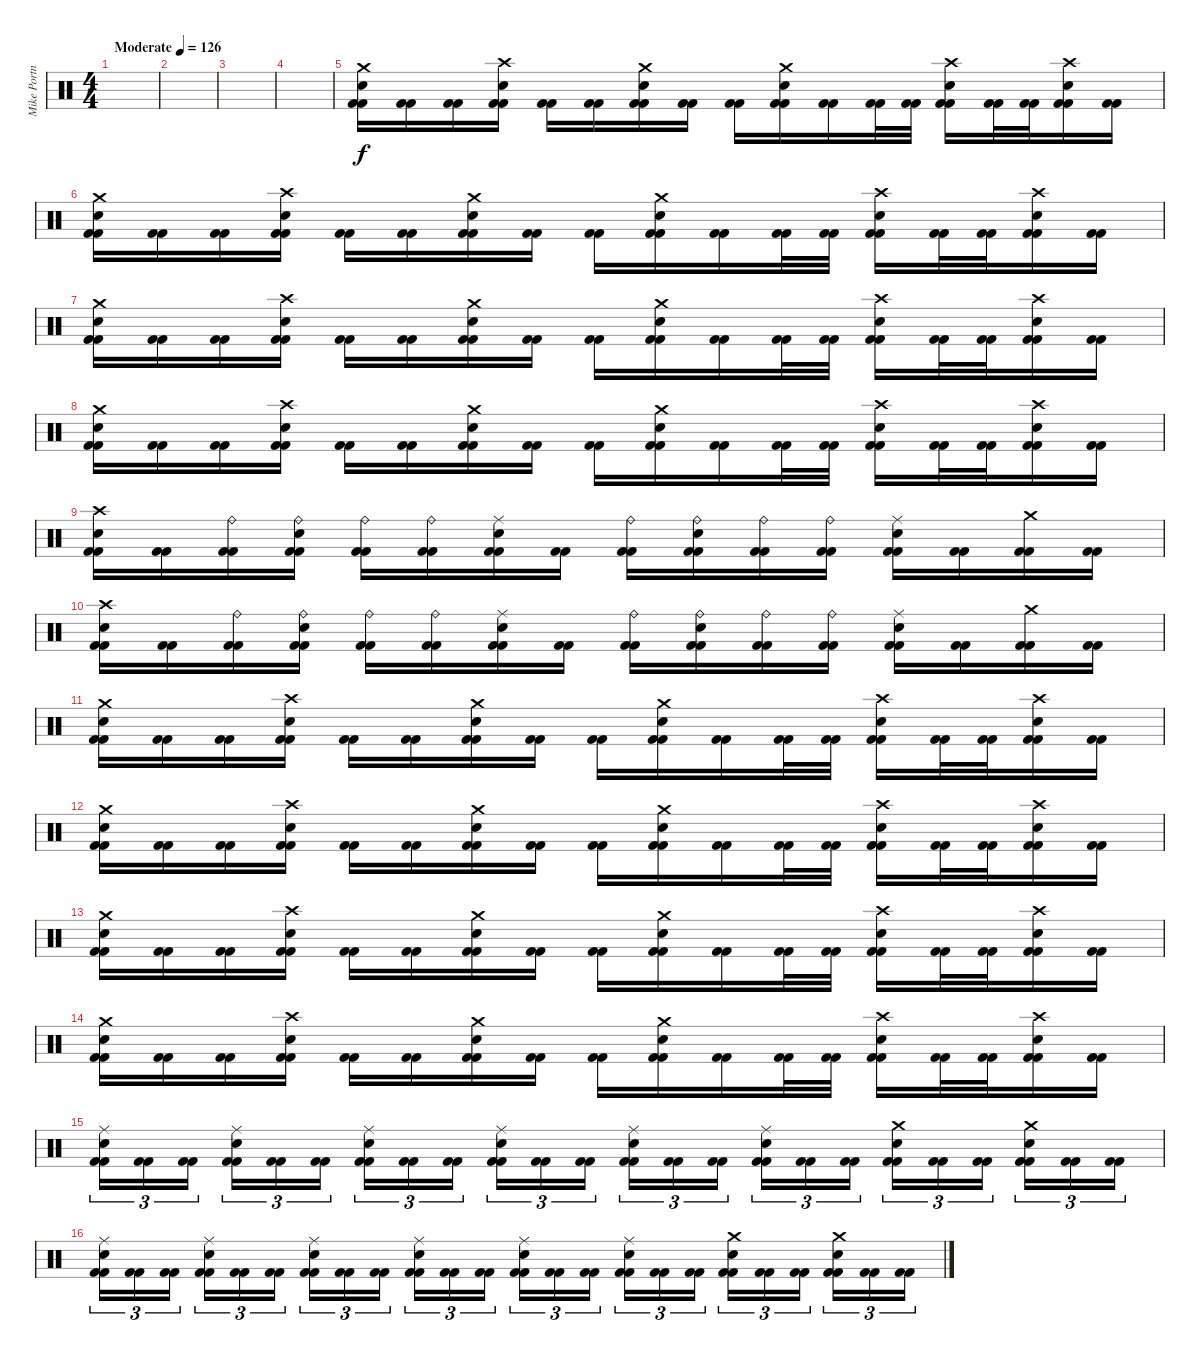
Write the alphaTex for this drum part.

\track ("Mike Portnoy" "Mike Portn") {instrument percussion}
\staff {score}
\articulation defaults
\ts (4 4)
\tempo (126 "Moderate")
\clef neutral
\ks c
|
|
|
|
("Crash medium (hit)" "Electric Snare (hit)" "Kick (hit) 2" "Kick (hit) 2").16 ("Kick (hit) 2" "Kick (hit) 2").16 ("Kick (hit) 2" "Kick (hit) 2").16 ("Crash high (hit)" "Electric Snare (hit)" "Kick (hit) 2" "Kick (hit) 2").16 ("Kick (hit) 2" "Kick (hit) 2").16 ("Kick (hit) 2" "Kick (hit) 2").16 ("Crash medium (hit)" "Electric Snare (hit)" "Kick (hit) 2" "Kick (hit) 2").16 ("Kick (hit) 2" "Kick (hit) 2").16 ("Kick (hit) 2" "Kick (hit) 2").16 ("Crash medium (hit)" "Electric Snare (hit)" "Kick (hit) 2" "Kick (hit) 2").16 ("Kick (hit) 2" "Kick (hit) 2").16 ("Kick (hit) 2" "Kick (hit) 2").32 ("Kick (hit) 2" "Kick (hit) 2").32 ("Crash high (hit)" "Electric Snare (hit)" "Kick (hit) 2" "Kick (hit) 2").16 ("Kick (hit) 2" "Kick (hit) 2").32 ("Kick (hit) 2" "Kick (hit) 2").32 ("Crash high (hit)" "Electric Snare (hit)" "Kick (hit) 2" "Kick (hit) 2").16 ("Kick (hit) 2" "Kick (hit) 2").16 |
("Crash medium (hit)" "Electric Snare (hit)" "Kick (hit) 2" "Kick (hit) 2").16 ("Kick (hit) 2" "Kick (hit) 2").16 ("Kick (hit) 2" "Kick (hit) 2").16 ("Crash high (hit)" "Electric Snare (hit)" "Kick (hit) 2" "Kick (hit) 2").16 ("Kick (hit) 2" "Kick (hit) 2").16 ("Kick (hit) 2" "Kick (hit) 2").16 ("Crash medium (hit)" "Electric Snare (hit)" "Kick (hit) 2" "Kick (hit) 2").16 ("Kick (hit) 2" "Kick (hit) 2").16 ("Kick (hit) 2" "Kick (hit) 2").16 ("Crash medium (hit)" "Electric Snare (hit)" "Kick (hit) 2" "Kick (hit) 2").16 ("Kick (hit) 2" "Kick (hit) 2").16 ("Kick (hit) 2" "Kick (hit) 2").32 ("Kick (hit) 2" "Kick (hit) 2").32 ("Crash high (hit)" "Electric Snare (hit)" "Kick (hit) 2" "Kick (hit) 2").16 ("Kick (hit) 2" "Kick (hit) 2").32 ("Kick (hit) 2" "Kick (hit) 2").32 ("Crash high (hit)" "Electric Snare (hit)" "Kick (hit) 2" "Kick (hit) 2").16 ("Kick (hit) 2" "Kick (hit) 2").16 |
("Crash medium (hit)" "Electric Snare (hit)" "Kick (hit) 2" "Kick (hit) 2").16 ("Kick (hit) 2" "Kick (hit) 2").16 ("Kick (hit) 2" "Kick (hit) 2").16 ("Crash high (hit)" "Electric Snare (hit)" "Kick (hit) 2" "Kick (hit) 2").16 ("Kick (hit) 2" "Kick (hit) 2").16 ("Kick (hit) 2" "Kick (hit) 2").16 ("Crash medium (hit)" "Electric Snare (hit)" "Kick (hit) 2" "Kick (hit) 2").16 ("Kick (hit) 2" "Kick (hit) 2").16 ("Kick (hit) 2" "Kick (hit) 2").16 ("Crash medium (hit)" "Electric Snare (hit)" "Kick (hit) 2" "Kick (hit) 2").16 ("Kick (hit) 2" "Kick (hit) 2").16 ("Kick (hit) 2" "Kick (hit) 2").32 ("Kick (hit) 2" "Kick (hit) 2").32 ("Crash high (hit)" "Electric Snare (hit)" "Kick (hit) 2" "Kick (hit) 2").16 ("Kick (hit) 2" "Kick (hit) 2").32 ("Kick (hit) 2" "Kick (hit) 2").32 ("Crash high (hit)" "Electric Snare (hit)" "Kick (hit) 2" "Kick (hit) 2").16 ("Kick (hit) 2" "Kick (hit) 2").16 |
("Crash medium (hit)" "Electric Snare (hit)" "Kick (hit) 2" "Kick (hit) 2").16 ("Kick (hit) 2" "Kick (hit) 2").16 ("Kick (hit) 2" "Kick (hit) 2").16 ("Crash high (hit)" "Electric Snare (hit)" "Kick (hit) 2" "Kick (hit) 2").16 ("Kick (hit) 2" "Kick (hit) 2").16 ("Kick (hit) 2" "Kick (hit) 2").16 ("Crash medium (hit)" "Electric Snare (hit)" "Kick (hit) 2" "Kick (hit) 2").16 ("Kick (hit) 2" "Kick (hit) 2").16 ("Kick (hit) 2" "Kick (hit) 2").16 ("Crash medium (hit)" "Electric Snare (hit)" "Kick (hit) 2" "Kick (hit) 2").16 ("Kick (hit) 2" "Kick (hit) 2").16 ("Kick (hit) 2" "Kick (hit) 2").32 ("Kick (hit) 2" "Kick (hit) 2").32 ("Crash high (hit)" "Electric Snare (hit)" "Kick (hit) 2" "Kick (hit) 2").16 ("Kick (hit) 2" "Kick (hit) 2").32 ("Kick (hit) 2" "Kick (hit) 2").32 ("Crash high (hit)" "Electric Snare (hit)" "Kick (hit) 2" "Kick (hit) 2").16 ("Kick (hit) 2" "Kick (hit) 2").16 |
("Crash high (hit)" "Electric Snare (hit)" "Kick (hit) 2" "Kick (hit) 2").16 ("Kick (hit) 2" "Kick (hit) 2").16 ("Ride (bell)" "Kick (hit) 2" "Kick (hit) 2").16 ("Ride (bell)" "Electric Snare (hit)" "Kick (hit) 2" "Kick (hit) 2").16 ("Ride (bell)" "Kick (hit) 2" "Kick (hit) 2").16 ("Ride (bell)" "Kick (hit) 2" "Kick (hit) 2").16 ("Ride (middle)" "Electric Snare (hit)" "Kick (hit) 2" "Kick (hit) 2").16 ("Kick (hit) 2" "Kick (hit) 2").16 ("Ride (bell)" "Kick (hit) 2" "Kick (hit) 2").16 ("Ride (bell)" "Electric Snare (hit)" "Kick (hit) 2" "Kick (hit) 2").16 ("Ride (bell)" "Kick (hit) 2" "Kick (hit) 2").16 ("Ride (bell)" "Kick (hit) 2" "Kick (hit) 2").16 ("Ride (middle)" "Electric Snare (hit)" "Kick (hit) 2" "Kick (hit) 2").16 ("Kick (hit) 2" "Kick (hit) 2").16 ("Crash medium (hit)" "Kick (hit) 2" "Kick (hit) 2").16 ("Kick (hit) 2" "Kick (hit) 2").16 |
("Crash high (hit)" "Electric Snare (hit)" "Kick (hit) 2" "Kick (hit) 2").16 ("Kick (hit) 2" "Kick (hit) 2").16 ("Ride (bell)" "Kick (hit) 2" "Kick (hit) 2").16 ("Ride (bell)" "Electric Snare (hit)" "Kick (hit) 2" "Kick (hit) 2").16 ("Ride (bell)" "Kick (hit) 2" "Kick (hit) 2").16 ("Ride (bell)" "Kick (hit) 2" "Kick (hit) 2").16 ("Ride (middle)" "Electric Snare (hit)" "Kick (hit) 2" "Kick (hit) 2").16 ("Kick (hit) 2" "Kick (hit) 2").16 ("Ride (bell)" "Kick (hit) 2" "Kick (hit) 2").16 ("Ride (bell)" "Electric Snare (hit)" "Kick (hit) 2" "Kick (hit) 2").16 ("Ride (bell)" "Kick (hit) 2" "Kick (hit) 2").16 ("Ride (bell)" "Kick (hit) 2" "Kick (hit) 2").16 ("Ride (middle)" "Electric Snare (hit)" "Kick (hit) 2" "Kick (hit) 2").16 ("Kick (hit) 2" "Kick (hit) 2").16 ("Crash medium (hit)" "Kick (hit) 2" "Kick (hit) 2").16 ("Kick (hit) 2" "Kick (hit) 2").16 |
("Crash medium (hit)" "Electric Snare (hit)" "Kick (hit) 2" "Kick (hit) 2").16 ("Kick (hit) 2" "Kick (hit) 2").16 ("Kick (hit) 2" "Kick (hit) 2").16 ("Crash high (hit)" "Electric Snare (hit)" "Kick (hit) 2" "Kick (hit) 2").16 ("Kick (hit) 2" "Kick (hit) 2").16 ("Kick (hit) 2" "Kick (hit) 2").16 ("Crash medium (hit)" "Electric Snare (hit)" "Kick (hit) 2" "Kick (hit) 2").16 ("Kick (hit) 2" "Kick (hit) 2").16 ("Kick (hit) 2" "Kick (hit) 2").16 ("Crash medium (hit)" "Electric Snare (hit)" "Kick (hit) 2" "Kick (hit) 2").16 ("Kick (hit) 2" "Kick (hit) 2").16 ("Kick (hit) 2" "Kick (hit) 2").32 ("Kick (hit) 2" "Kick (hit) 2").32 ("Crash high (hit)" "Electric Snare (hit)" "Kick (hit) 2" "Kick (hit) 2").16 ("Kick (hit) 2" "Kick (hit) 2").32 ("Kick (hit) 2" "Kick (hit) 2").32 ("Crash high (hit)" "Electric Snare (hit)" "Kick (hit) 2" "Kick (hit) 2").16 ("Kick (hit) 2" "Kick (hit) 2").16 |
("Crash medium (hit)" "Electric Snare (hit)" "Kick (hit) 2" "Kick (hit) 2").16 ("Kick (hit) 2" "Kick (hit) 2").16 ("Kick (hit) 2" "Kick (hit) 2").16 ("Crash high (hit)" "Electric Snare (hit)" "Kick (hit) 2" "Kick (hit) 2").16 ("Kick (hit) 2" "Kick (hit) 2").16 ("Kick (hit) 2" "Kick (hit) 2").16 ("Crash medium (hit)" "Electric Snare (hit)" "Kick (hit) 2" "Kick (hit) 2").16 ("Kick (hit) 2" "Kick (hit) 2").16 ("Kick (hit) 2" "Kick (hit) 2").16 ("Crash medium (hit)" "Electric Snare (hit)" "Kick (hit) 2" "Kick (hit) 2").16 ("Kick (hit) 2" "Kick (hit) 2").16 ("Kick (hit) 2" "Kick (hit) 2").32 ("Kick (hit) 2" "Kick (hit) 2").32 ("Crash high (hit)" "Electric Snare (hit)" "Kick (hit) 2" "Kick (hit) 2").16 ("Kick (hit) 2" "Kick (hit) 2").32 ("Kick (hit) 2" "Kick (hit) 2").32 ("Crash high (hit)" "Electric Snare (hit)" "Kick (hit) 2" "Kick (hit) 2").16 ("Kick (hit) 2" "Kick (hit) 2").16 |
("Crash medium (hit)" "Electric Snare (hit)" "Kick (hit) 2" "Kick (hit) 2").16 ("Kick (hit) 2" "Kick (hit) 2").16 ("Kick (hit) 2" "Kick (hit) 2").16 ("Crash high (hit)" "Electric Snare (hit)" "Kick (hit) 2" "Kick (hit) 2").16 ("Kick (hit) 2" "Kick (hit) 2").16 ("Kick (hit) 2" "Kick (hit) 2").16 ("Crash medium (hit)" "Electric Snare (hit)" "Kick (hit) 2" "Kick (hit) 2").16 ("Kick (hit) 2" "Kick (hit) 2").16 ("Kick (hit) 2" "Kick (hit) 2").16 ("Crash medium (hit)" "Electric Snare (hit)" "Kick (hit) 2" "Kick (hit) 2").16 ("Kick (hit) 2" "Kick (hit) 2").16 ("Kick (hit) 2" "Kick (hit) 2").32 ("Kick (hit) 2" "Kick (hit) 2").32 ("Crash high (hit)" "Electric Snare (hit)" "Kick (hit) 2" "Kick (hit) 2").16 ("Kick (hit) 2" "Kick (hit) 2").32 ("Kick (hit) 2" "Kick (hit) 2").32 ("Crash high (hit)" "Electric Snare (hit)" "Kick (hit) 2" "Kick (hit) 2").16 ("Kick (hit) 2" "Kick (hit) 2").16 |
("Crash medium (hit)" "Electric Snare (hit)" "Kick (hit) 2" "Kick (hit) 2").16 ("Kick (hit) 2" "Kick (hit) 2").16 ("Kick (hit) 2" "Kick (hit) 2").16 ("Crash high (hit)" "Electric Snare (hit)" "Kick (hit) 2" "Kick (hit) 2").16 ("Kick (hit) 2" "Kick (hit) 2").16 ("Kick (hit) 2" "Kick (hit) 2").16 ("Crash medium (hit)" "Electric Snare (hit)" "Kick (hit) 2" "Kick (hit) 2").16 ("Kick (hit) 2" "Kick (hit) 2").16 ("Kick (hit) 2" "Kick (hit) 2").16 ("Crash medium (hit)" "Electric Snare (hit)" "Kick (hit) 2" "Kick (hit) 2").16 ("Kick (hit) 2" "Kick (hit) 2").16 ("Kick (hit) 2" "Kick (hit) 2").32 ("Kick (hit) 2" "Kick (hit) 2").32 ("Crash high (hit)" "Electric Snare (hit)" "Kick (hit) 2" "Kick (hit) 2").16 ("Kick (hit) 2" "Kick (hit) 2").32 ("Kick (hit) 2" "Kick (hit) 2").32 ("Crash high (hit)" "Electric Snare (hit)" "Kick (hit) 2" "Kick (hit) 2").16 ("Kick (hit) 2" "Kick (hit) 2").16 |
("Ride (middle)" "Electric Snare (hit)" "Kick (hit) 2" "Kick (hit) 2").16{tu (3 2)} ("Kick (hit) 2" "Kick (hit) 2").16{tu (3 2)} ("Kick (hit) 2" "Kick (hit) 2").16{tu (3 2) beam splitsecondary} ("Ride (middle)" "Electric Snare (hit)" "Kick (hit) 2" "Kick (hit) 2").16{tu (3 2)} ("Kick (hit) 2" "Kick (hit) 2").16{tu (3 2)} ("Kick (hit) 2" "Kick (hit) 2").16{tu (3 2)} ("Ride (middle)" "Electric Snare (hit)" "Kick (hit) 2" "Kick (hit) 2").16{tu (3 2)} ("Kick (hit) 2" "Kick (hit) 2").16{tu (3 2)} ("Kick (hit) 2" "Kick (hit) 2").16{tu (3 2) beam splitsecondary} ("Ride (middle)" "Electric Snare (hit)" "Kick (hit) 2" "Kick (hit) 2").16{tu (3 2)} ("Kick (hit) 2" "Kick (hit) 2").16{tu (3 2)} ("Kick (hit) 2" "Kick (hit) 2").16{tu (3 2)} ("Ride (middle)" "Electric Snare (hit)" "Kick (hit) 2" "Kick (hit) 2").16{tu (3 2)} ("Kick (hit) 2" "Kick (hit) 2").16{tu (3 2)} ("Kick (hit) 2" "Kick (hit) 2").16{tu (3 2) beam splitsecondary} ("Ride (middle)" "Electric Snare (hit)" "Kick (hit) 2" "Kick (hit) 2").16{tu (3 2)} ("Kick (hit) 2" "Kick (hit) 2").16{tu (3 2)} ("Kick (hit) 2" "Kick (hit) 2").16{tu (3 2)} ("Crash medium (hit)" "Electric Snare (hit)" "Kick (hit) 2" "Kick (hit) 2").16{tu (3 2)} ("Kick (hit) 2" "Kick (hit) 2").16{tu (3 2)} ("Kick (hit) 2" "Kick (hit) 2").16{tu (3 2) beam splitsecondary} ("Crash medium (hit)" "Electric Snare (hit)" "Kick (hit) 2" "Kick (hit) 2").16{tu (3 2)} ("Kick (hit) 2" "Kick (hit) 2").16{tu (3 2)} ("Kick (hit) 2" "Kick (hit) 2").16{tu (3 2)} |
("Ride (middle)" "Electric Snare (hit)" "Kick (hit) 2" "Kick (hit) 2").16{tu (3 2)} ("Kick (hit) 2" "Kick (hit) 2").16{tu (3 2)} ("Kick (hit) 2" "Kick (hit) 2").16{tu (3 2) beam splitsecondary} ("Ride (middle)" "Electric Snare (hit)" "Kick (hit) 2" "Kick (hit) 2").16{tu (3 2)} ("Kick (hit) 2" "Kick (hit) 2").16{tu (3 2)} ("Kick (hit) 2" "Kick (hit) 2").16{tu (3 2)} ("Ride (middle)" "Electric Snare (hit)" "Kick (hit) 2" "Kick (hit) 2").16{tu (3 2)} ("Kick (hit) 2" "Kick (hit) 2").16{tu (3 2)} ("Kick (hit) 2" "Kick (hit) 2").16{tu (3 2) beam splitsecondary} ("Ride (middle)" "Electric Snare (hit)" "Kick (hit) 2" "Kick (hit) 2").16{tu (3 2)} ("Kick (hit) 2" "Kick (hit) 2").16{tu (3 2)} ("Kick (hit) 2" "Kick (hit) 2").16{tu (3 2)} ("Ride (middle)" "Electric Snare (hit)" "Kick (hit) 2" "Kick (hit) 2").16{tu (3 2)} ("Kick (hit) 2" "Kick (hit) 2").16{tu (3 2)} ("Kick (hit) 2" "Kick (hit) 2").16{tu (3 2) beam splitsecondary} ("Ride (middle)" "Electric Snare (hit)" "Kick (hit) 2" "Kick (hit) 2").16{tu (3 2)} ("Kick (hit) 2" "Kick (hit) 2").16{tu (3 2)} ("Kick (hit) 2" "Kick (hit) 2").16{tu (3 2)} ("Crash medium (hit)" "Electric Snare (hit)" "Kick (hit) 2" "Kick (hit) 2").16{tu (3 2)} ("Kick (hit) 2" "Kick (hit) 2").16{tu (3 2)} ("Kick (hit) 2" "Kick (hit) 2").16{tu (3 2) beam splitsecondary} ("Crash medium (hit)" "Electric Snare (hit)" "Kick (hit) 2" "Kick (hit) 2").16{tu (3 2)} ("Kick (hit) 2" "Kick (hit) 2").16{tu (3 2)} ("Kick (hit) 2" "Kick (hit) 2").16{tu (3 2)}
